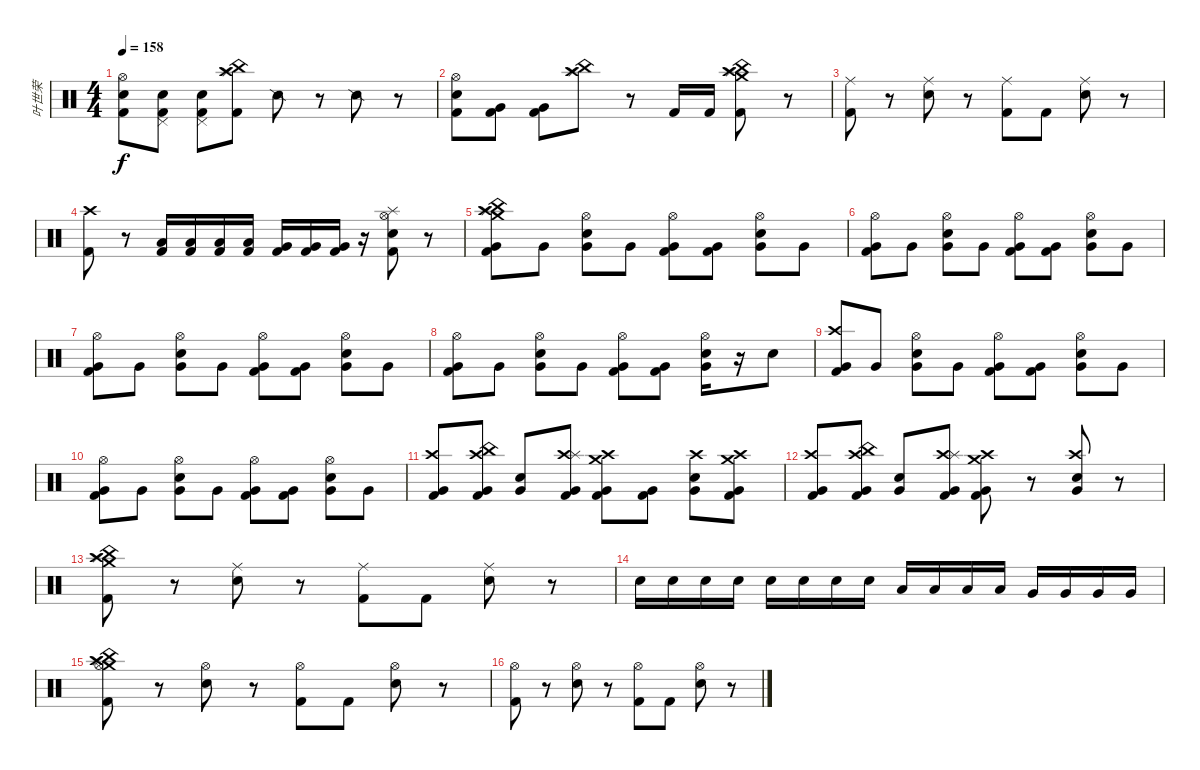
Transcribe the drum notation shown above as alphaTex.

\track ("叶世荣" "叶世荣") {instrument percussion}
\staff {score}
\articulation defaults
\ts (4 4)
\tempo 158
\clef neutral
\ks c
("Hi-Hat (open)" "Snare (hit) 2" "Kick (hit) 2").8{dy f} ("Snare (hit) 2" "Kick (hit) 2" "Pedal Hi-Hat (hit)").8 ("Snare (hit) 2" "Kick (hit) 2" "Pedal Hi-Hat (hit)").8 ("Crash high (hit)" "Splash (hit)" "China (hit)" "Kick (hit) 2").8 "Snare (side stick) 2".8 r.8 "Snare (side stick) 2".8 r.8 |
("Hi-Hat (open)" "Snare (hit) 2" "Kick (hit) 2").8 ("Very Low Tom (hit)" "Kick (hit) 2").8 ("Very Low Tom (hit)" "Kick (hit) 2").8 ("Crash high (hit)" "Splash (hit)" "China (hit)").8 r.8 "Kick (hit) 2".16 "Kick (hit) 2".16 ("Crash high (hit)" "Splash (hit)" "Crash medium (hit)" "China (hit)" "Kick (hit) 2").8 r.8 |
("Ride (middle)" "Kick (hit) 2").8 r.8 ("Ride (middle)" "Snare (hit) 2").8 r.8 ("Ride (middle)" "Kick (hit) 2").8 "Kick (hit) 2".8 ("Ride (middle)" "Snare (hit) 2").8 r.8 |
("Crash high (hit)" "Kick (hit) 2").8 r.8 ("Low Tom (hit)" "Kick (hit) 2").16 ("Low Tom (hit)" "Kick (hit) 2").16 ("Low Tom (hit)" "Kick (hit) 2").16 ("Low Tom (hit)" "Kick (hit) 2").16 ("Very Low Tom (hit)" "Kick (hit) 2").16 ("Very Low Tom (hit)" "Kick (hit) 2").16 ("Very Low Tom (hit)" "Kick (hit) 2").16 r.16 ("Hi-Hat (open)" "Splash (hit)" "Snare (hit) 2" "Kick (hit) 2").8 r.8 |
("Crash high (hit)" "Splash (hit)" "China (hit)" "Crash medium (hit)" "Kick (hit) 2" "Very Low Tom (hit)").8 "Very Low Tom (hit)".8 ("Hi-Hat (open)" "Snare (hit) 2" "Very Low Tom (hit)").8 "Very Low Tom (hit)".8 ("Hi-Hat (open)" "Kick (hit) 2" "Very Low Tom (hit)").8 ("Kick (hit) 2" "Very Low Tom (hit)").8 ("Hi-Hat (open)" "Snare (hit) 2" "Very Low Tom (hit)").8 "Very Low Tom (hit)".8 |
("Hi-Hat (open)" "Kick (hit) 2" "Very Low Tom (hit)").8 "Very Low Tom (hit)".8 ("Hi-Hat (open)" "Snare (hit) 2" "Very Low Tom (hit)").8 "Very Low Tom (hit)".8 ("Hi-Hat (open)" "Kick (hit) 2" "Very Low Tom (hit)").8 ("Kick (hit) 2" "Very Low Tom (hit)").8 ("Hi-Hat (open)" "Snare (hit) 2" "Very Low Tom (hit)").8 "Very Low Tom (hit)".8 |
("Hi-Hat (open)" "Kick (hit) 2" "Very Low Tom (hit)").8 "Very Low Tom (hit)".8 ("Hi-Hat (open)" "Snare (hit) 2" "Very Low Tom (hit)").8 "Very Low Tom (hit)".8 ("Hi-Hat (open)" "Kick (hit) 2" "Very Low Tom (hit)").8 ("Kick (hit) 2" "Very Low Tom (hit)").8 ("Hi-Hat (open)" "Snare (hit) 2" "Very Low Tom (hit)").8 "Very Low Tom (hit)".8 |
("Hi-Hat (open)" "Kick (hit) 2" "Very Low Tom (hit)").8 "Very Low Tom (hit)".8 ("Hi-Hat (open)" "Snare (hit) 2" "Very Low Tom (hit)").8 "Very Low Tom (hit)".8 ("Hi-Hat (open)" "Kick (hit) 2" "Very Low Tom (hit)").8 ("Kick (hit) 2" "Very Low Tom (hit)").8 ("Hi-Hat (open)" "Snare (hit) 2" "Very Low Tom (hit)").16 r.16 "Snare (hit) 2".8 |
("Crash high (hit)" "Kick (hit) 2" "Very Low Tom (hit)").8 "Very Low Tom (hit)".8 ("Hi-Hat (open)" "Snare (hit) 2" "Very Low Tom (hit)").8 "Very Low Tom (hit)".8 ("Hi-Hat (open)" "Kick (hit) 2" "Very Low Tom (hit)").8 ("Kick (hit) 2" "Very Low Tom (hit)").8 ("Hi-Hat (open)" "Snare (hit) 2" "Very Low Tom (hit)").8 "Very Low Tom (hit)".8 |
("Hi-Hat (open)" "Kick (hit) 2" "Very Low Tom (hit)").8 "Very Low Tom (hit)".8 ("Hi-Hat (open)" "Snare (hit) 2" "Very Low Tom (hit)").8 "Very Low Tom (hit)".8 ("Hi-Hat (open)" "Kick (hit) 2" "Very Low Tom (hit)").8 ("Kick (hit) 2" "Very Low Tom (hit)").8 ("Hi-Hat (open)" "Snare (hit) 2" "Very Low Tom (hit)").8 "Very Low Tom (hit)".8 |
("Crash high (hit)" "Kick (hit) 2" "Very Low Tom (hit)").8 ("Crash high (hit)" "China (hit)" "Kick (hit) 2" "Very Low Tom (hit)").8 ("Snare (hit) 2" "Very Low Tom (hit)").8 ("Crash high (hit)" "Splash (hit)" "Kick (hit) 2" "Very Low Tom (hit)").8 ("Crash high (hit)" "Crash medium (hit)" "Kick (hit) 2" "Very Low Tom (hit)").8 ("Kick (hit) 2" "Very Low Tom (hit)").8 ("Crash high (hit)" "Snare (hit) 2" "Very Low Tom (hit)").8 ("Crash high (hit)" "Crash medium (hit)" "Kick (hit) 2" "Very Low Tom (hit)").8 |
("Crash high (hit)" "Kick (hit) 2" "Very Low Tom (hit)").8 ("Crash high (hit)" "China (hit)" "Kick (hit) 2" "Very Low Tom (hit)").8 ("Snare (hit) 2" "Very Low Tom (hit)").8 ("Crash high (hit)" "Splash (hit)" "Kick (hit) 2" "Very Low Tom (hit)").8 ("Crash high (hit)" "Crash medium (hit)" "Kick (hit) 2" "Very Low Tom (hit)").8 r.8 ("Crash high (hit)" "Snare (hit) 2" "Very Low Tom (hit)").8 r.8 |
("Crash high (hit)" "Crash medium (hit)" "Splash (hit)" "China (hit)" "Kick (hit) 2").8 r.8 ("Ride (middle)" "Snare (hit) 2").8 r.8 ("Ride (middle)" "Kick (hit) 2").8 "Kick (hit) 2".8 ("Ride (middle)" "Snare (hit) 2").8 r.8 |
"Snare (hit) 2".16 "Snare (hit) 2".16 "Snare (hit) 2".16 "Snare (hit) 2".16 "Snare (hit) 2".16 "Snare (hit) 2".16 "Snare (hit) 2".16 "Snare (hit) 2".16 "Low Tom (hit)".16 "Low Tom (hit)".16 "Low Tom (hit)".16 "Low Tom (hit)".16 "Very Low Tom (hit)".16 "Very Low Tom (hit)".16 "Very Low Tom (hit)".16 "Very Low Tom (hit)".16 |
("Crash high (hit)" "Crash medium (hit)" "China (hit)" "Splash (hit)" "Hi-Hat (open)" "Kick (hit) 2").8 r.8 ("Hi-Hat (open)" "Snare (hit) 2").8 r.8 ("Hi-Hat (open)" "Kick (hit) 2").8 "Kick (hit) 2".8 ("Hi-Hat (open)" "Snare (hit) 2").8 r.8 |
("Hi-Hat (open)" "Kick (hit) 2").8 r.8 ("Hi-Hat (open)" "Snare (hit) 2").8 r.8 ("Hi-Hat (open)" "Kick (hit) 2").8 "Kick (hit) 2".8 ("Hi-Hat (open)" "Snare (hit) 2").8 r.8
